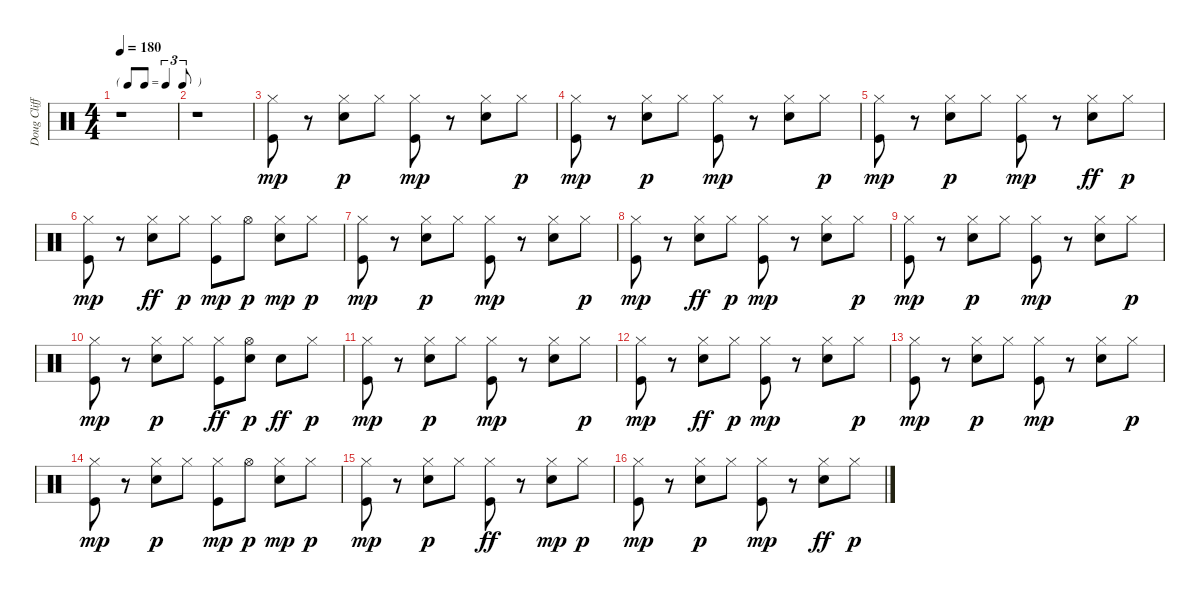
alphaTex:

\track ("Doug Clifford" "Doug Cliff") {instrument percussion}
\staff {score}
\articulation defaults
\ts (4 4)
\tf triplet8th
\tempo 180
\clef neutral
\ks c
r.1{dy mp} |
r.1 |
("Kick (hit)" "Hi-Hat (closed)").8 r.8 ("Snare (hit) 2" "Hi-Hat (closed)").8{dy p} "Hi-Hat (closed)".8 ("Kick (hit)" "Hi-Hat (closed)").8{dy mp} r.8 ("Snare (hit) 2" "Hi-Hat (closed)").8 "Hi-Hat (closed)".8{dy p} |
("Kick (hit)" "Hi-Hat (closed)").8{dy mp} r.8 ("Snare (hit) 2" "Hi-Hat (closed)").8{dy p} "Hi-Hat (closed)".8 ("Kick (hit)" "Hi-Hat (closed)").8{dy mp} r.8 ("Snare (hit) 2" "Hi-Hat (closed)").8 "Hi-Hat (closed)".8{dy p} |
("Kick (hit)" "Hi-Hat (closed)").8{dy mp} r.8 ("Snare (hit) 2" "Hi-Hat (closed)").8{dy p} "Hi-Hat (closed)".8 ("Kick (hit)" "Hi-Hat (closed)").8{dy mp} r.8 ("Hi-Hat (closed)" "Snare (hit) 2").8{dy ff} "Hi-Hat (closed)".8{dy p} |
("Kick (hit)" "Hi-Hat (closed)").8{dy mp} r.8 ("Hi-Hat (closed)" "Snare (hit) 2").8{dy ff} "Hi-Hat (closed)".8{dy p} ("Kick (hit)" "Hi-Hat (closed)").8{dy mp} "Hi-Hat (open)".8{dy p} ("Snare (hit) 2" "Hi-Hat (closed)").8{dy mp} "Hi-Hat (closed)".8{dy p} |
("Kick (hit)" "Hi-Hat (closed)").8{dy mp} r.8 ("Snare (hit) 2" "Hi-Hat (closed)").8{dy p} "Hi-Hat (closed)".8 ("Kick (hit)" "Hi-Hat (closed)").8{dy mp} r.8 ("Snare (hit) 2" "Hi-Hat (closed)").8 "Hi-Hat (closed)".8{dy p} |
("Kick (hit)" "Hi-Hat (closed)").8{dy mp} r.8 ("Hi-Hat (closed)" "Snare (hit) 2").8{dy ff} "Hi-Hat (closed)".8{dy p} ("Kick (hit)" "Hi-Hat (closed)").8{dy mp} r.8 ("Snare (hit) 2" "Hi-Hat (closed)").8 "Hi-Hat (closed)".8{dy p} |
("Kick (hit)" "Hi-Hat (closed)").8{dy mp} r.8 ("Snare (hit) 2" "Hi-Hat (closed)").8{dy p} "Hi-Hat (closed)".8 ("Kick (hit)" "Hi-Hat (closed)").8{dy mp} r.8 ("Snare (hit) 2" "Hi-Hat (closed)").8 "Hi-Hat (closed)".8{dy p} |
("Kick (hit)" "Hi-Hat (closed)").8{dy mp} r.8 ("Snare (hit) 2" "Hi-Hat (closed)").8{dy p} "Hi-Hat (closed)".8 ("Hi-Hat (closed)" "Kick (hit)").8{dy ff} ("Hi-Hat (open)" "Snare (hit) 2").8{dy p} "Snare (hit) 2".8{dy ff} "Hi-Hat (closed)".8{dy p} |
("Kick (hit)" "Hi-Hat (closed)").8{dy mp} r.8 ("Snare (hit) 2" "Hi-Hat (closed)").8{dy p} "Hi-Hat (closed)".8 ("Kick (hit)" "Hi-Hat (closed)").8{dy mp} r.8 ("Snare (hit) 2" "Hi-Hat (closed)").8 "Hi-Hat (closed)".8{dy p} |
("Kick (hit)" "Hi-Hat (closed)").8{dy mp} r.8 ("Hi-Hat (closed)" "Snare (hit) 2").8{dy ff} "Hi-Hat (closed)".8{dy p} ("Kick (hit)" "Hi-Hat (closed)").8{dy mp} r.8 ("Snare (hit) 2" "Hi-Hat (closed)").8 "Hi-Hat (closed)".8{dy p} |
("Kick (hit)" "Hi-Hat (closed)").8{dy mp} r.8 ("Snare (hit) 2" "Hi-Hat (closed)").8{dy p} "Hi-Hat (closed)".8 ("Kick (hit)" "Hi-Hat (closed)").8{dy mp} r.8 ("Snare (hit) 2" "Hi-Hat (closed)").8 "Hi-Hat (closed)".8{dy p} |
("Kick (hit)" "Hi-Hat (closed)").8{dy mp} r.8 ("Snare (hit) 2" "Hi-Hat (closed)").8{dy p} "Hi-Hat (closed)".8 ("Kick (hit)" "Hi-Hat (closed)").8{dy mp} "Hi-Hat (open)".8{dy p} ("Snare (hit) 2" "Hi-Hat (closed)").8{dy mp} "Hi-Hat (closed)".8{dy p} |
("Kick (hit)" "Hi-Hat (closed)").8{dy mp} r.8 ("Snare (hit) 2" "Hi-Hat (closed)").8{dy p} "Hi-Hat (closed)".8 ("Hi-Hat (closed)" "Kick (hit)").8{dy ff} r.8 ("Snare (hit) 2" "Hi-Hat (closed)").8{dy mp} "Hi-Hat (closed)".8{dy p} |
("Kick (hit)" "Hi-Hat (closed)").8{dy mp} r.8 ("Snare (hit) 2" "Hi-Hat (closed)").8{dy p} "Hi-Hat (closed)".8 ("Kick (hit)" "Hi-Hat (closed)").8{dy mp} r.8 ("Hi-Hat (closed)" "Snare (hit) 2").8{dy ff} "Hi-Hat (closed)".8{dy p}
